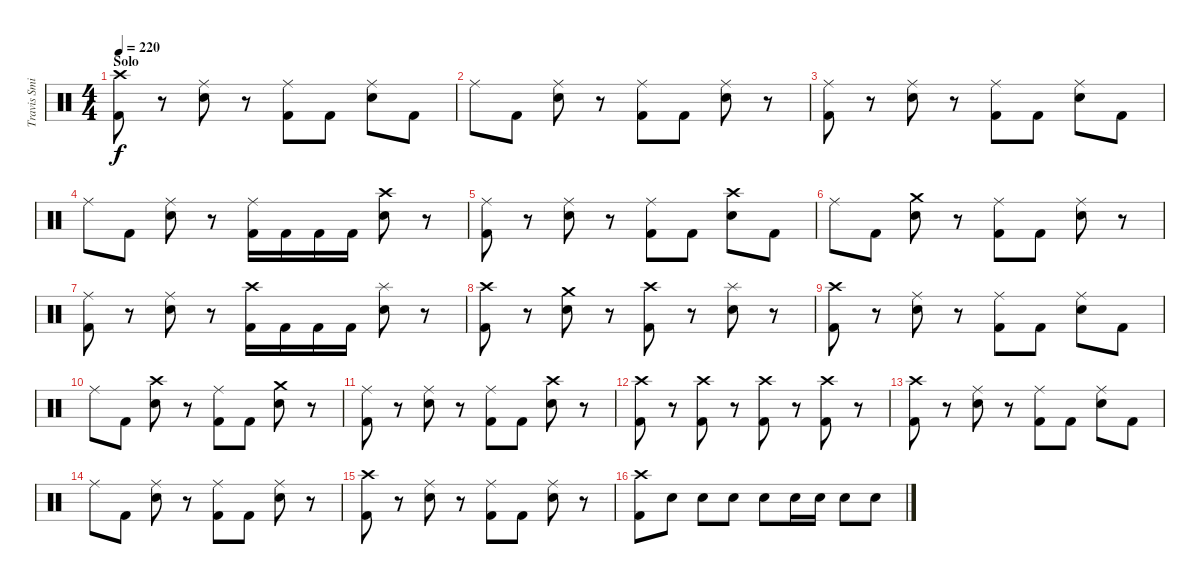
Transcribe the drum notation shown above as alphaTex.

\track ("Travis Smith" "Travis Smi") {instrument percussion}
\staff {score}
\articulation defaults
\ts (4 4)
\section ("" "Solo")
\tempo 220
\clef neutral
\ks c
("Crash high (hit)" "Kick (hit) 2").8{dy f} r.8 ("Ride (middle)" "Electric Snare (hit)").8 r.8 ("Ride (middle)" "Kick (hit) 2").8 "Kick (hit) 2".8 ("Ride (middle)" "Electric Snare (hit)").8 "Kick (hit) 2".8 |
"Ride (middle)".8 "Kick (hit) 2".8 ("Ride (middle)" "Electric Snare (hit)").8 r.8 ("Ride (middle)" "Kick (hit) 2").8 "Kick (hit) 2".8 ("Ride (middle)" "Electric Snare (hit)").8 r.8 |
("Ride (middle)" "Kick (hit) 2").8 r.8 ("Ride (middle)" "Electric Snare (hit)").8 r.8 ("Ride (middle)" "Kick (hit) 2").8 "Kick (hit) 2".8 ("Ride (middle)" "Electric Snare (hit)").8 "Kick (hit) 2".8 |
"Ride (middle)".8 "Kick (hit) 2".8 ("Ride (middle)" "Electric Snare (hit)").8 r.8 ("Ride (middle)" "Kick (hit) 2").16 "Kick (hit) 2".16 "Kick (hit) 2".16 "Kick (hit) 2".16 ("Crash high (hit)" "Electric Snare (hit)").8 r.8 |
("Ride (middle)" "Kick (hit) 2").8 r.8 ("Ride (middle)" "Electric Snare (hit)").8 r.8 ("Ride (middle)" "Kick (hit) 2").8 "Kick (hit) 2".8 ("Crash high (hit)" "Electric Snare (hit)").8 "Kick (hit) 2".8 |
"Ride (middle)".8 "Kick (hit) 2".8 ("Crash medium (hit)" "Electric Snare (hit)").8 r.8 ("Ride (middle)" "Kick (hit) 2").8 "Kick (hit) 2".8 ("Ride (middle)" "Electric Snare (hit)").8 r.8 |
("Ride (middle)" "Kick (hit) 2").8 r.8 ("Ride (middle)" "Electric Snare (hit)").8 r.8 ("Crash high (hit)" "Kick (hit) 2").16 "Kick (hit) 2".16 "Kick (hit) 2".16 "Kick (hit) 2".16 ("Splash (hit)" "Electric Snare (hit)").8 r.8 |
("Crash high (hit)" "Kick (hit) 2").8 r.8 ("Crash medium (hit)" "Electric Snare (hit)").8 r.8 ("Crash high (hit)" "Kick (hit) 2").8 r.8 ("Splash (hit)" "Electric Snare (hit)").8 r.8 |
("Crash high (hit)" "Kick (hit) 2").8 r.8 ("Ride (middle)" "Electric Snare (hit)").8 r.8 ("Ride (middle)" "Kick (hit) 2").8 "Kick (hit) 2".8 ("Ride (middle)" "Electric Snare (hit)").8 "Kick (hit) 2".8 |
"Ride (middle)".8 "Kick (hit) 2".8 ("Crash high (hit)" "Electric Snare (hit)").8 r.8 ("Ride (middle)" "Kick (hit) 2").8 "Kick (hit) 2".8 ("Crash medium (hit)" "Electric Snare (hit)").8 r.8 |
("Ride (middle)" "Kick (hit) 2").8 r.8 ("Ride (middle)" "Electric Snare (hit)").8 r.8 ("Ride (middle)" "Kick (hit) 2").8 "Kick (hit) 2".8 ("Crash high (hit)" "Electric Snare (hit)").8 r.8 |
("Crash high (hit)" "Kick (hit) 2").8 r.8 ("Crash high (hit)" "Kick (hit) 2").8 r.8 ("Crash high (hit)" "Kick (hit) 2").8 r.8 ("Crash high (hit)" "Kick (hit) 2").8 r.8 |
("Crash high (hit)" "Kick (hit) 2").8 r.8 ("Ride (middle)" "Electric Snare (hit)").8 r.8 ("Ride (middle)" "Kick (hit) 2").8 "Kick (hit) 2".8 ("Ride (middle)" "Electric Snare (hit)").8 "Kick (hit) 2".8 |
"Ride (middle)".8 "Kick (hit) 2".8 ("Ride (middle)" "Electric Snare (hit)").8 r.8 ("Ride (middle)" "Kick (hit) 2").8 "Kick (hit) 2".8 ("Ride (middle)" "Electric Snare (hit)").8 r.8 |
("Crash high (hit)" "Kick (hit) 2").8 r.8 ("Ride (middle)" "Electric Snare (hit)").8 r.8 ("Ride (middle)" "Kick (hit) 2").8 "Kick (hit) 2".8 ("Ride (middle)" "Electric Snare (hit)").8 r.8 |
("Crash high (hit)" "Kick (hit) 2").8 "Electric Snare (hit)".8 "Electric Snare (hit)".8 "Electric Snare (hit)".8 "Electric Snare (hit)".8 "Electric Snare (hit)".16 "Electric Snare (hit)".16 "Electric Snare (hit)".8 "Electric Snare (hit)".8
